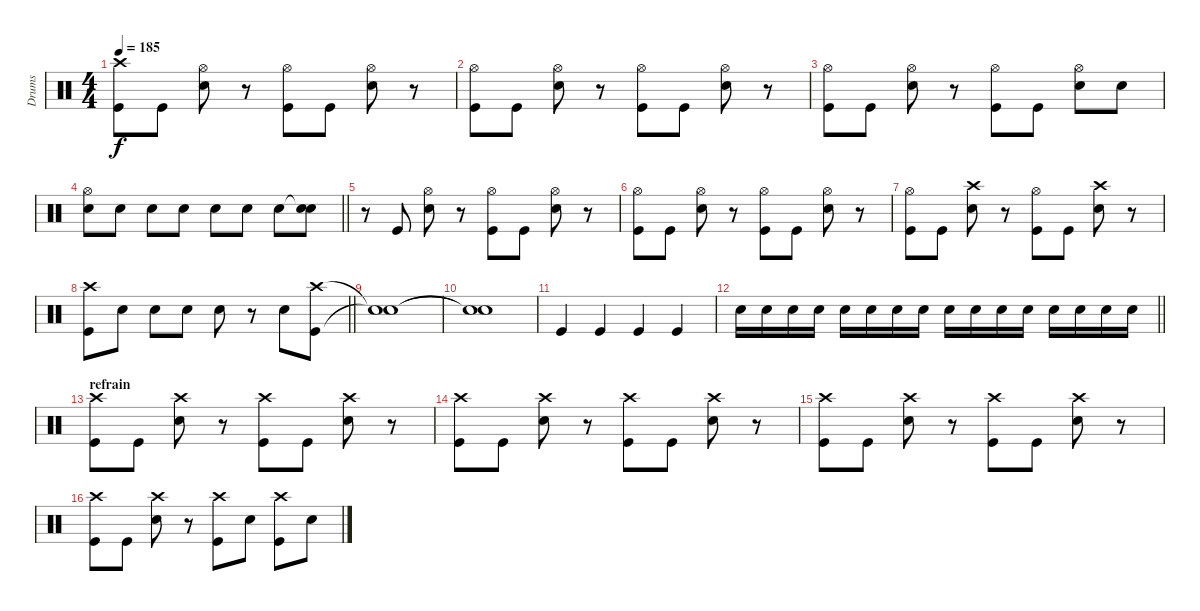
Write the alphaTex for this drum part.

\track ("Drums" "Drums") {instrument percussion}
\staff {score}
\articulation defaults
\ts (4 4)
\tempo 185
\clef neutral
\ks c
("Crash high (hit)" "Kick (hit)").8{dy f} "Kick (hit)".8 ("Hi-Hat (open)" "Electric Snare (hit)").8 r.8 ("Hi-Hat (open)" "Kick (hit)").8 "Kick (hit)".8 ("Hi-Hat (open)" "Electric Snare (hit)").8 r.8 |
("Hi-Hat (open)" "Kick (hit)").8 "Kick (hit)".8 ("Hi-Hat (open)" "Electric Snare (hit)").8 r.8 ("Hi-Hat (open)" "Kick (hit)").8 "Kick (hit)".8 ("Hi-Hat (open)" "Electric Snare (hit)").8 r.8 |
("Hi-Hat (open)" "Kick (hit)").8 "Kick (hit)".8 ("Hi-Hat (open)" "Electric Snare (hit)").8 r.8 ("Hi-Hat (open)" "Kick (hit)").8 "Kick (hit)".8 ("Hi-Hat (open)" "Electric Snare (hit)").8 "Electric Snare (hit)".8 |
\barLineRight lightlight
("Hi-Hat (open)" "Electric Snare (hit)").8 "Electric Snare (hit)".8 "Electric Snare (hit)".8 "Electric Snare (hit)".8 "Electric Snare (hit)".8 "Electric Snare (hit)".8 "Electric Snare (hit)".8 ("Snare (hit)"{t} "Electric Snare (hit)").8 |
r.8 "Kick (hit)".8 ("Hi-Hat (open)" "Electric Snare (hit)").8 r.8 ("Hi-Hat (open)" "Kick (hit)").8 "Kick (hit)".8 ("Hi-Hat (open)" "Electric Snare (hit)").8 r.8 |
("Hi-Hat (open)" "Kick (hit)").8 "Kick (hit)".8 ("Hi-Hat (open)" "Electric Snare (hit)").8 r.8 ("Hi-Hat (open)" "Kick (hit)").8 "Kick (hit)".8 ("Hi-Hat (open)" "Electric Snare (hit)").8 r.8 |
("Hi-Hat (open)" "Kick (hit)").8 "Kick (hit)".8 ("Crash high (hit)" "Electric Snare (hit)").8 r.8 ("Hi-Hat (open)" "Kick (hit)").8 "Kick (hit)".8 ("Crash high (hit)" "Electric Snare (hit)").8 r.8 |
\barLineRight lightlight
("Crash high (hit)" "Kick (hit)").8 "Electric Snare (hit)".8 "Electric Snare (hit)".8 "Electric Snare (hit)".8 "Electric Snare (hit)".8 r.8 "Electric Snare (hit)".8 ("Crash high (hit)" "Kick (hit)").8 |
("Snare (hit)"{t} "Snare (hit)"{t}).1 |
("Snare (hit)"{t} "Snare (hit)"{t}).1 |
"Kick (hit)".4 "Kick (hit)".4 "Kick (hit)".4 "Kick (hit)".4 |
\barLineRight lightlight "Electric Snare (hit)".16 "Electric Snare (hit)".16 "Electric Snare (hit)".16 "Electric Snare (hit)".16 "Electric Snare (hit)".16 "Electric Snare (hit)".16 "Electric Snare (hit)".16 "Electric Snare (hit)".16 "Electric Snare (hit)".16 "Electric Snare (hit)".16 "Electric Snare (hit)".16 "Electric Snare (hit)".16 "Electric Snare (hit)".16 "Electric Snare (hit)".16 "Electric Snare (hit)".16 "Electric Snare (hit)".16
|
\section ("" "refrain")
("Crash high (hit)" "Kick (hit)").8 "Kick (hit)".8 ("Crash high (hit)" "Electric Snare (hit)").8 r.8 ("Crash high (hit)" "Kick (hit)").8 "Kick (hit)".8 ("Crash high (hit)" "Electric Snare (hit)").8 r.8 |
("Crash high (hit)" "Kick (hit)").8 "Kick (hit)".8 ("Crash high (hit)" "Electric Snare (hit)").8 r.8 ("Crash high (hit)" "Kick (hit)").8 "Kick (hit)".8 ("Crash high (hit)" "Electric Snare (hit)").8 r.8 |
("Crash high (hit)" "Kick (hit)").8 "Kick (hit)".8 ("Crash high (hit)" "Electric Snare (hit)").8 r.8 ("Crash high (hit)" "Kick (hit)").8 "Kick (hit)".8 ("Crash high (hit)" "Electric Snare (hit)").8 r.8 |
("Crash high (hit)" "Kick (hit)").8 "Kick (hit)".8 ("Crash high (hit)" "Electric Snare (hit)").8 r.8 ("Crash high (hit)" "Kick (hit)").8 "Electric Snare (hit)".8 ("Crash high (hit)" "Kick (hit)").8 "Electric Snare (hit)".8
